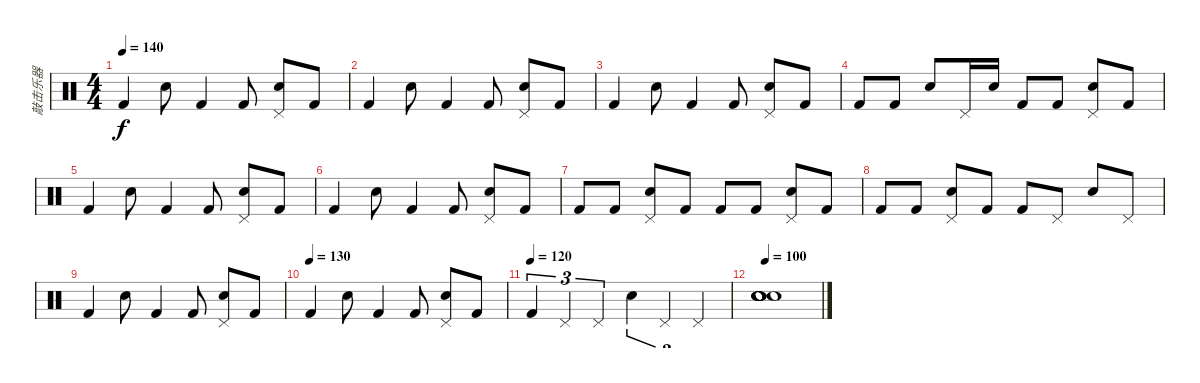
\track ("敲击乐器" "敲击乐器") {instrument percussion}
\staff {score}
\articulation defaults
\ts (4 4)
\tempo 140
\clef neutral
\ks c "Kick (hit) 2".4{dy f} "Snare (hit) 2".8 "Kick (hit) 2".4 "Kick (hit) 2".8
("Pedal Hi-Hat (hit)" "Snare (hit) 2").8 "Kick (hit) 2".8 |
"Kick (hit) 2".4 "Snare (hit) 2".8 "Kick (hit) 2".4 "Kick (hit) 2".8 ("Pedal Hi-Hat (hit)" "Snare (hit) 2").8 "Kick (hit) 2".8 |
"Kick (hit) 2".4 "Snare (hit) 2".8 "Kick (hit) 2".4 "Kick (hit) 2".8 ("Pedal Hi-Hat (hit)" "Snare (hit) 2").8 "Kick (hit) 2".8 |
"Kick (hit) 2".8 "Kick (hit) 2".8 "Snare (hit) 2".8 "Pedal Hi-Hat (hit)".16 "Snare (hit) 2".16 "Kick (hit) 2".8 "Kick (hit) 2".8 ("Pedal Hi-Hat (hit)" "Snare (hit) 2").8 "Kick (hit) 2".8 |
"Kick (hit) 2".4 "Snare (hit) 2".8 "Kick (hit) 2".4 "Kick (hit) 2".8 ("Pedal Hi-Hat (hit)" "Snare (hit) 2").8 "Kick (hit) 2".8 |
"Kick (hit) 2".4 "Snare (hit) 2".8 "Kick (hit) 2".4 "Kick (hit) 2".8 ("Pedal Hi-Hat (hit)" "Snare (hit) 2").8 "Kick (hit) 2".8 |
"Kick (hit) 2".8 "Kick (hit) 2".8 ("Pedal Hi-Hat (hit)" "Snare (hit) 2").8 "Kick (hit) 2".8 "Kick (hit) 2".8 "Kick (hit) 2".8 ("Pedal Hi-Hat (hit)" "Snare (hit) 2").8 "Kick (hit) 2".8 |
"Kick (hit) 2".8 "Kick (hit) 2".8 ("Pedal Hi-Hat (hit)" "Snare (hit) 2").8 "Kick (hit) 2".8 "Kick (hit) 2".8 "Pedal Hi-Hat (hit)".8 "Snare (hit) 2".8 "Pedal Hi-Hat (hit)".8 |
"Kick (hit) 2".4 "Snare (hit) 2".8 "Kick (hit) 2".4 "Kick (hit) 2".8 ("Pedal Hi-Hat (hit)" "Snare (hit) 2").8 "Kick (hit) 2".8 |
\tempo (130)
"Kick (hit) 2".4 "Snare (hit) 2".8 "Kick (hit) 2".4 "Kick (hit) 2".8 ("Pedal Hi-Hat (hit)" "Snare (hit) 2").8 "Kick (hit) 2".8 |
\tempo (120)
"Kick (hit) 2".4{tu (3 2)} "Pedal Hi-Hat (hit)".4{tu (3 2)} "Pedal Hi-Hat (hit)".4{tu (3 2)} "Snare (hit) 2".4{tu (3 2)} "Pedal Hi-Hat (hit)".4{tu (3 2)} "Pedal Hi-Hat (hit)".4{tu (3 2)} |
\tempo 100
("Snare (hit)" "Snare (hit)" "Snare (hit)" "Snare (hit)" "Snare (hit)" "Snare (hit)").1
